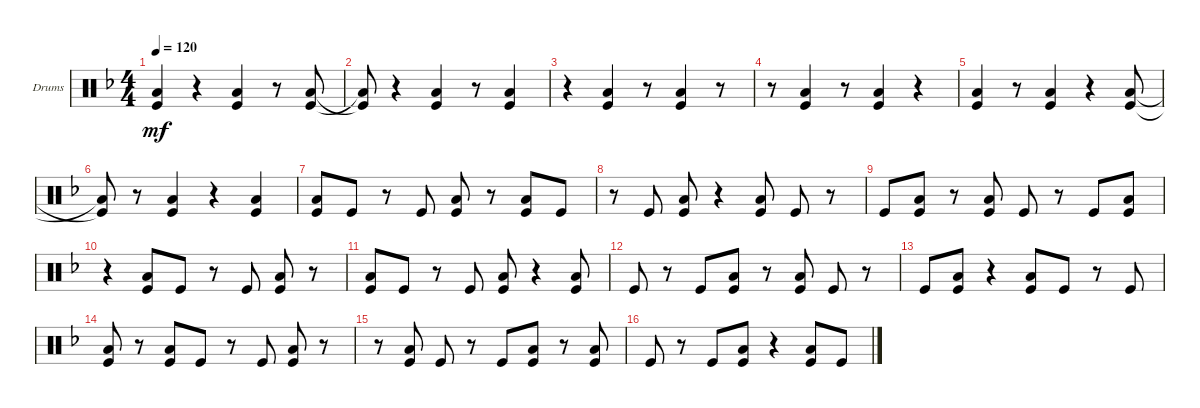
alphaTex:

\defaultSystemsLayout 4
\bracketExtendMode groupsimilarinstruments
\firstSystemTrackNameOrientation horizontal
\otherSystemsTrackNameOrientation horizontal
\track ("Drumkit" "Drums") {instrument percussion}
\staff {score}
\articulation defaults
\ts (4 4)
\tempo 120
\clef neutral
\ks f
("Low Tom (hit)" "Kick (hit)").4{dy mf} r.4 ("Kick (hit)" "Low Tom (hit)").4 r.8 ("Low Tom (hit)" "Kick (hit)").8 |
("Kick (hit)"{t} "Low Tom (hit)"{t}).8 r.4 ("Kick (hit)" "Low Tom (hit)").4 r.8 ("Low Tom (hit)" "Kick (hit)").4 |
r.4 ("Kick (hit)" "Low Tom (hit)").4 r.8 ("Low Tom (hit)" "Kick (hit)").4 r.8 |
r.8 ("Kick (hit)" "Low Tom (hit)").4 r.8 ("Low Tom (hit)" "Kick (hit)").4 r.4 |
("Kick (hit)" "Low Tom (hit)").4 r.8 ("Low Tom (hit)" "Kick (hit)").4 r.4 ("Kick (hit)" "Low Tom (hit)").8 |
("Low Tom (hit)"{t} "Kick (hit)"{t}).8 r.8 ("Kick (hit)" "Low Tom (hit)").4 r.4 ("Low Tom (hit)" "Kick (hit)").4 |
("Kick (hit)" "Low Tom (hit)").8 "Kick (hit)".8 r.8 "Kick (hit)".8 ("Kick (hit)" "Low Tom (hit)").8 r.8 ("Low Tom (hit)" "Kick (hit)").8 "Kick (hit)".8 |
r.8 "Kick (hit)".8 ("Kick (hit)" "Low Tom (hit)").8 r.4 ("Kick (hit)" "Low Tom (hit)").8 "Kick (hit)".8 r.8 |
"Kick (hit)".8 ("Kick (hit)" "Low Tom (hit)").8 r.8 ("Low Tom (hit)" "Kick (hit)").8 "Kick (hit)".8 r.8 "Kick (hit)".8 ("Kick (hit)" "Low Tom (hit)").8 |
r.4 ("Kick (hit)" "Low Tom (hit)").8 "Kick (hit)".8 r.8 "Kick (hit)".8 ("Kick (hit)" "Low Tom (hit)").8 r.8 |
("Low Tom (hit)" "Kick (hit)").8 "Kick (hit)".8 r.8 "Kick (hit)".8 ("Kick (hit)" "Low Tom (hit)").8 r.4 ("Kick (hit)" "Low Tom (hit)").8 |
"Kick (hit)".8 r.8 "Kick (hit)".8 ("Low Tom (hit)" "Kick (hit)").8 r.8 ("Kick (hit)" "Low Tom (hit)").8 "Kick (hit)".8 r.8 |
"Kick (hit)".8 ("Kick (hit)" "Low Tom (hit)").8 r.4 ("Low Tom (hit)" "Kick (hit)").8 "Kick (hit)".8 r.8 "Kick (hit)".8 |
("Kick (hit)" "Low Tom (hit)").8 r.8 ("Low Tom (hit)" "Kick (hit)").8 "Kick (hit)".8 r.8 "Kick (hit)".8 ("Kick (hit)" "Low Tom (hit)").8 r.8 |
r.8 ("Low Tom (hit)" "Kick (hit)").8 "Kick (hit)".8 r.8 "Kick (hit)".8 ("Kick (hit)" "Low Tom (hit)").8 r.8 ("Low Tom (hit)" "Kick (hit)").8 |
"Kick (hit)".8 r.8 "Kick (hit)".8 ("Kick (hit)" "Low Tom (hit)").8 r.4 ("Low Tom (hit)" "Kick (hit)").8 "Kick (hit)".8
